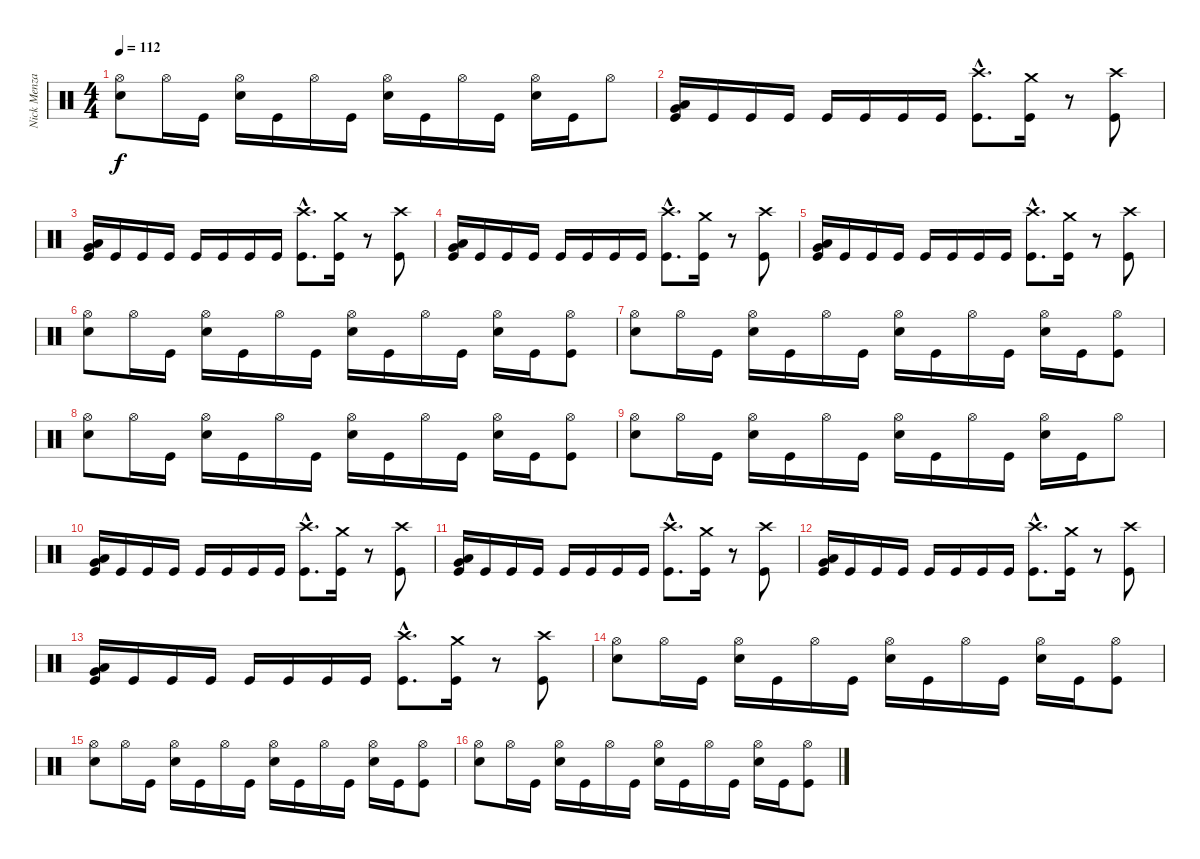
\track ("Nick Menza" "Nick Menza") {instrument percussion}
\staff {score}
\articulation defaults
\ts (4 4)
\tempo 112
\clef neutral
\ks c
("Hi-Hat (open)" "Snare (hit) 2").8{dy f} "Hi-Hat (open)".16 "Kick (hit)".16 ("Hi-Hat (open)" "Snare (hit) 2").16 "Kick (hit)".16 "Hi-Hat (open)".16 "Kick (hit)".16 ("Hi-Hat (open)" "Snare (hit) 2").16 "Kick (hit)".16 "Hi-Hat (open)".16 "Kick (hit)".16 ("Hi-Hat (open)" "Snare (hit) 2").16 "Kick (hit)".16 "Hi-Hat (open)".8 |
("Very Low Tom (hit)" "Low Floor Tom (hit)" "Kick (hit)").16 "Kick (hit)".16 "Kick (hit)".16 "Kick (hit)".16 "Kick (hit)".16 "Kick (hit)".16 "Kick (hit)".16 "Kick (hit)".16 ("Crash high (hit)"{hac} "Kick (hit)"{hac}).8{d} ("Crash medium (hit)" "Kick (hit)").16 r.8 ("Crash high (hit)" "Kick (hit)").8 |
("Very Low Tom (hit)" "Low Floor Tom (hit)" "Kick (hit)").16 "Kick (hit)".16 "Kick (hit)".16 "Kick (hit)".16 "Kick (hit)".16 "Kick (hit)".16 "Kick (hit)".16 "Kick (hit)".16 ("Crash high (hit)"{hac} "Kick (hit)"{hac}).8{d} ("Crash medium (hit)" "Kick (hit)").16 r.8 ("Crash high (hit)" "Kick (hit)").8 |
("Very Low Tom (hit)" "Low Floor Tom (hit)" "Kick (hit)").16 "Kick (hit)".16 "Kick (hit)".16 "Kick (hit)".16 "Kick (hit)".16 "Kick (hit)".16 "Kick (hit)".16 "Kick (hit)".16 ("Crash high (hit)"{hac} "Kick (hit)"{hac}).8{d} ("Crash medium (hit)" "Kick (hit)").16 r.8 ("Crash high (hit)" "Kick (hit)").8 |
("Very Low Tom (hit)" "Low Floor Tom (hit)" "Kick (hit)").16 "Kick (hit)".16 "Kick (hit)".16 "Kick (hit)".16 "Kick (hit)".16 "Kick (hit)".16 "Kick (hit)".16 "Kick (hit)".16 ("Crash high (hit)"{hac} "Kick (hit)"{hac}).8{d} ("Crash medium (hit)" "Kick (hit)").16 r.8 ("Crash high (hit)" "Kick (hit)").8 |
("Hi-Hat (open)" "Snare (hit) 2").8 "Hi-Hat (open)".16 "Kick (hit)".16 ("Hi-Hat (open)" "Snare (hit) 2").16 "Kick (hit)".16 "Hi-Hat (open)".16 "Kick (hit)".16 ("Hi-Hat (open)" "Snare (hit) 2").16 "Kick (hit)".16 "Hi-Hat (open)".16 "Kick (hit)".16 ("Hi-Hat (open)" "Snare (hit) 2").16 "Kick (hit)".16 ("Hi-Hat (open)" "Kick (hit)").8 |
("Hi-Hat (open)" "Snare (hit) 2").8 "Hi-Hat (open)".16 "Kick (hit)".16 ("Hi-Hat (open)" "Snare (hit) 2").16 "Kick (hit)".16 "Hi-Hat (open)".16 "Kick (hit)".16 ("Hi-Hat (open)" "Snare (hit) 2").16 "Kick (hit)".16 "Hi-Hat (open)".16 "Kick (hit)".16 ("Hi-Hat (open)" "Snare (hit) 2").16 "Kick (hit)".16 ("Hi-Hat (open)" "Kick (hit)").8 |
("Hi-Hat (open)" "Snare (hit) 2").8 "Hi-Hat (open)".16 "Kick (hit)".16 ("Hi-Hat (open)" "Snare (hit) 2").16 "Kick (hit)".16 "Hi-Hat (open)".16 "Kick (hit)".16 ("Hi-Hat (open)" "Snare (hit) 2").16 "Kick (hit)".16 "Hi-Hat (open)".16 "Kick (hit)".16 ("Hi-Hat (open)" "Snare (hit) 2").16 "Kick (hit)".16 ("Hi-Hat (open)" "Kick (hit)").8 |
("Hi-Hat (open)" "Snare (hit) 2").8 "Hi-Hat (open)".16 "Kick (hit)".16 ("Hi-Hat (open)" "Snare (hit) 2").16 "Kick (hit)".16 "Hi-Hat (open)".16 "Kick (hit)".16 ("Hi-Hat (open)" "Snare (hit) 2").16 "Kick (hit)".16 "Hi-Hat (open)".16 "Kick (hit)".16 ("Hi-Hat (open)" "Snare (hit) 2").16 "Kick (hit)".16 "Hi-Hat (open)".8 |
("Very Low Tom (hit)" "Low Floor Tom (hit)" "Kick (hit)").16 "Kick (hit)".16 "Kick (hit)".16 "Kick (hit)".16 "Kick (hit)".16 "Kick (hit)".16 "Kick (hit)".16 "Kick (hit)".16 ("Crash high (hit)"{hac} "Kick (hit)"{hac}).8{d} ("Crash medium (hit)" "Kick (hit)").16 r.8 ("Crash high (hit)" "Kick (hit)").8 |
("Very Low Tom (hit)" "Low Floor Tom (hit)" "Kick (hit)").16 "Kick (hit)".16 "Kick (hit)".16 "Kick (hit)".16 "Kick (hit)".16 "Kick (hit)".16 "Kick (hit)".16 "Kick (hit)".16 ("Crash high (hit)"{hac} "Kick (hit)"{hac}).8{d} ("Crash medium (hit)" "Kick (hit)").16 r.8 ("Crash high (hit)" "Kick (hit)").8 |
("Very Low Tom (hit)" "Low Floor Tom (hit)" "Kick (hit)").16 "Kick (hit)".16 "Kick (hit)".16 "Kick (hit)".16 "Kick (hit)".16 "Kick (hit)".16 "Kick (hit)".16 "Kick (hit)".16 ("Crash high (hit)"{hac} "Kick (hit)"{hac}).8{d} ("Crash medium (hit)" "Kick (hit)").16 r.8 ("Crash high (hit)" "Kick (hit)").8 |
("Very Low Tom (hit)" "Low Floor Tom (hit)" "Kick (hit)").16 "Kick (hit)".16 "Kick (hit)".16 "Kick (hit)".16 "Kick (hit)".16 "Kick (hit)".16 "Kick (hit)".16 "Kick (hit)".16 ("Crash high (hit)"{hac} "Kick (hit)"{hac}).8{d} ("Crash medium (hit)" "Kick (hit)").16 r.8 ("Crash high (hit)" "Kick (hit)").8 |
("Hi-Hat (open)" "Snare (hit) 2").8 "Hi-Hat (open)".16 "Kick (hit)".16 ("Hi-Hat (open)" "Snare (hit) 2").16 "Kick (hit)".16 "Hi-Hat (open)".16 "Kick (hit)".16 ("Hi-Hat (open)" "Snare (hit) 2").16 "Kick (hit)".16 "Hi-Hat (open)".16 "Kick (hit)".16 ("Hi-Hat (open)" "Snare (hit) 2").16 "Kick (hit)".16 ("Hi-Hat (open)" "Kick (hit)").8 |
("Hi-Hat (open)" "Snare (hit) 2").8 "Hi-Hat (open)".16 "Kick (hit)".16 ("Hi-Hat (open)" "Snare (hit) 2").16 "Kick (hit)".16 "Hi-Hat (open)".16 "Kick (hit)".16 ("Hi-Hat (open)" "Snare (hit) 2").16 "Kick (hit)".16 "Hi-Hat (open)".16 "Kick (hit)".16 ("Hi-Hat (open)" "Snare (hit) 2").16 "Kick (hit)".16 ("Hi-Hat (open)" "Kick (hit)").8 |
("Hi-Hat (open)" "Snare (hit) 2").8 "Hi-Hat (open)".16 "Kick (hit)".16 ("Hi-Hat (open)" "Snare (hit) 2").16 "Kick (hit)".16 "Hi-Hat (open)".16 "Kick (hit)".16 ("Hi-Hat (open)" "Snare (hit) 2").16 "Kick (hit)".16 "Hi-Hat (open)".16 "Kick (hit)".16 ("Hi-Hat (open)" "Snare (hit) 2").16 "Kick (hit)".16 ("Hi-Hat (open)" "Kick (hit)").8
